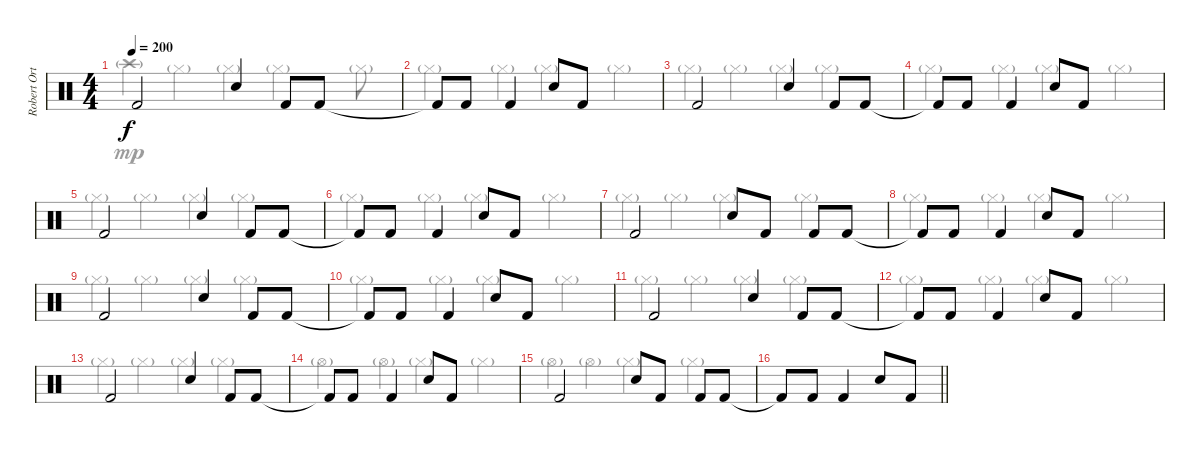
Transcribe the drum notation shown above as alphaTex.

\track ("Robert Ortiz" "Robert Ort") {instrument percussion}
\staff {score}
\articulation defaults
\voice
\ts (4 4)
\tempo 200
\clef neutral
\ks c "Kick (hit) 2".2{dy f} "Electric Snare (hit)".4 "Kick (hit) 2".8 "Kick (hit) 2".8
|
"Kick (hit) 2"{t}.8 "Kick (hit) 2".8 "Kick (hit) 2".4 "Electric Snare (hit)".8 "Kick (hit) 2".8 |
"Kick (hit) 2".2 "Electric Snare (hit)".4 "Kick (hit) 2".8 "Kick (hit) 2".8 |
"Kick (hit) 2"{t}.8 "Kick (hit) 2".8 "Kick (hit) 2".4 "Electric Snare (hit)".8 "Kick (hit) 2".8 |
"Kick (hit) 2".2 "Electric Snare (hit)".4 "Kick (hit) 2".8 "Kick (hit) 2".8 |
"Kick (hit) 2"{t}.8 "Kick (hit) 2".8 "Kick (hit) 2".4 "Electric Snare (hit)".8 "Kick (hit) 2".8 |
"Kick (hit) 2".2 "Electric Snare (hit)".8 "Kick (hit) 2".8 "Kick (hit) 2".8 "Kick (hit) 2".8 |
"Kick (hit) 2"{t}.8 "Kick (hit) 2".8 "Kick (hit) 2".4 "Electric Snare (hit)".8 "Kick (hit) 2".8 |
"Kick (hit) 2".2 "Electric Snare (hit)".4 "Kick (hit) 2".8 "Kick (hit) 2".8 |
"Kick (hit) 2"{t}.8 "Kick (hit) 2".8 "Kick (hit) 2".4 "Electric Snare (hit)".8 "Kick (hit) 2".8 |
"Kick (hit) 2".2 "Electric Snare (hit)".4 "Kick (hit) 2".8 "Kick (hit) 2".8 |
"Kick (hit) 2"{t}.8 "Kick (hit) 2".8 "Kick (hit) 2".4 "Electric Snare (hit)".8 "Kick (hit) 2".8 |
"Kick (hit) 2".2 "Electric Snare (hit)".4 "Kick (hit) 2".8 "Kick (hit) 2".8 |
"Kick (hit) 2"{t}.8 "Kick (hit) 2".8 "Kick (hit) 2".4 "Electric Snare (hit)".8 "Kick (hit) 2".8 |
"Kick (hit) 2".2 "Electric Snare (hit)".8 "Kick (hit) 2".8 "Kick (hit) 2".8 "Kick (hit) 2".8 |
\barLineRight lightlight "Kick (hit) 2"{t}.8 "Kick (hit) 2".8 "Kick (hit) 2".4 "Electric Snare (hit)".8 "Kick (hit) 2".8
\voice
\clef neutral
\ottava regular
\simile none
\ks c "Crash high (hit)"{g}.4{dy mp} "Hi-Hat (closed)"{g}.4 "Hi-Hat (closed)"{g}.4 "Hi-Hat (closed)"{g}.4 "Hi-Hat (closed)"{g}.8
|
"Hi-Hat (closed)"{g}.4 "Hi-Hat (closed)"{g}.4 "Hi-Hat (closed)"{g}.4 "Hi-Hat (closed)"{g}.4 |
"Hi-Hat (closed)"{g}.4 "Hi-Hat (closed)"{g}.4 "Hi-Hat (closed)"{g}.4 "Hi-Hat (closed)"{g}.4 |
"Hi-Hat (closed)"{g}.4 "Hi-Hat (closed)"{g}.4 "Hi-Hat (closed)"{g}.4 "Hi-Hat (closed)"{g}.4 |
"Hi-Hat (closed)"{g}.4 "Hi-Hat (closed)"{g}.4 "Hi-Hat (closed)"{g}.4 "Hi-Hat (closed)"{g}.4 |
"Hi-Hat (closed)"{g}.4 "Hi-Hat (closed)"{g}.4 "Hi-Hat (closed)"{g}.4 "Hi-Hat (closed)"{g}.4 |
"Hi-Hat (closed)"{g}.4 "Hi-Hat (closed)"{g}.4 "Hi-Hat (closed)"{g}.4 "Hi-Hat (closed)"{g}.4 |
"Hi-Hat (closed)"{g}.4 "Hi-Hat (closed)"{g}.4 "Hi-Hat (closed)"{g}.4 "Hi-Hat (closed)"{g}.4 |
"Hi-Hat (closed)"{g}.4 "Hi-Hat (closed)"{g}.4 "Hi-Hat (closed)"{g}.4 "Hi-Hat (closed)"{g}.4 |
"Hi-Hat (closed)"{g}.4 "Hi-Hat (closed)"{g}.4 "Hi-Hat (closed)"{g}.4 "Hi-Hat (closed)"{g}.4 |
"Hi-Hat (closed)"{g}.4 "Hi-Hat (closed)"{g}.4 "Hi-Hat (closed)"{g}.4 "Hi-Hat (closed)"{g}.4 |
"Hi-Hat (closed)"{g}.4 "Hi-Hat (closed)"{g}.4 "Hi-Hat (closed)"{g}.4 "Hi-Hat (closed)"{g}.4 |
"Hi-Hat (closed)"{g}.4 "Hi-Hat (closed)"{g}.4 "Hi-Hat (closed)"{g}.4 "Hi-Hat (closed)"{g}.4 |
"Hi-Hat (open)"{g}.4 "Hi-Hat (open)"{g}.4 "Hi-Hat (closed)"{g}.4 "Hi-Hat (closed)"{g}.4 |
"Hi-Hat (open)"{g}.4 "Hi-Hat (open)"{g}.4 "Hi-Hat (closed)"{g}.4 "Hi-Hat (closed)"{g}.4 |
\barLineRight lightlight
